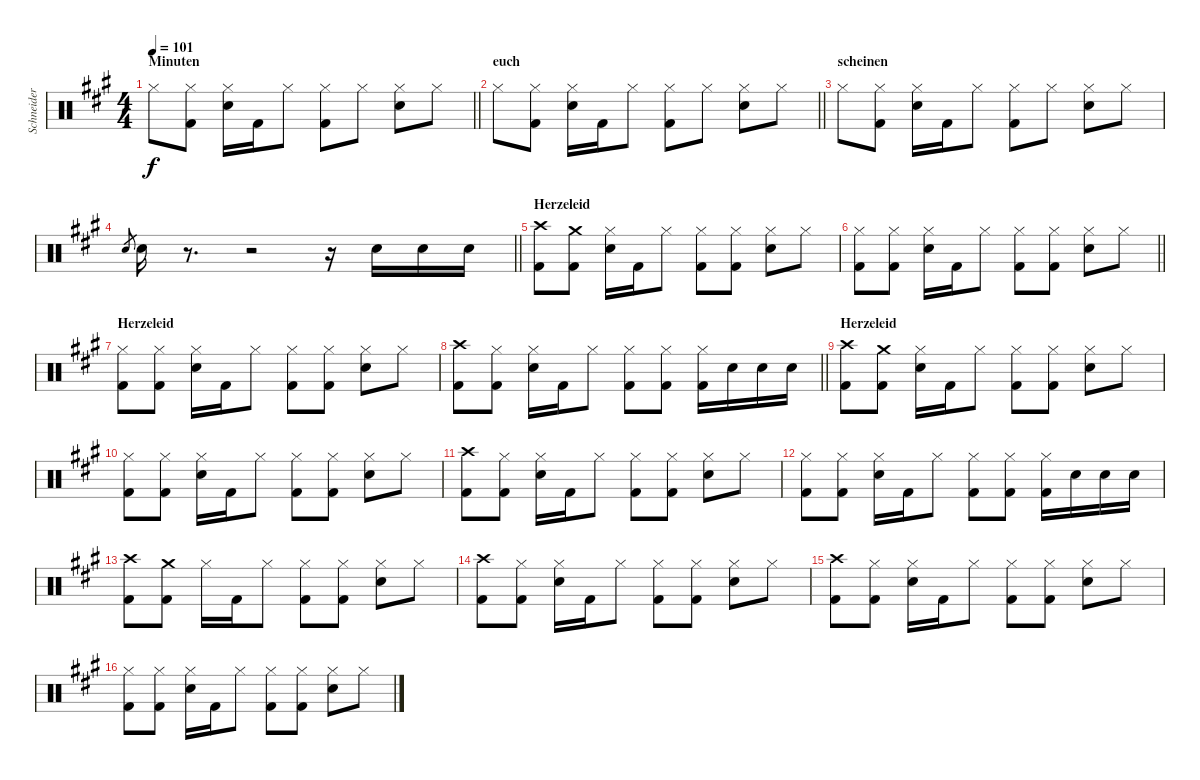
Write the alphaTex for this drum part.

\track ("Schneider" "Schneider") {instrument percussion}
\staff {score}
\articulation defaults
\ts (4 4)
\section ("" "Minuten")
\tempo 101
\clef neutral
\barLineRight lightlight
\ks f#minor "Hi-Hat (closed)".8{dy f}
("Hi-Hat (closed)" "Kick (hit) 2").8 ("Hi-Hat (closed)" "Snare (hit) 2").16 "Kick (hit) 2".16 "Hi-Hat (closed)".8 ("Hi-Hat (closed)" "Kick (hit) 2").8 "Hi-Hat (closed)".8 ("Hi-Hat (closed)" "Snare (hit) 2").8 "Hi-Hat (closed)".8 |
\section ("" "euch")
\barLineRight lightlight "Hi-Hat (closed)".8
("Hi-Hat (closed)" "Kick (hit) 2").8 ("Hi-Hat (closed)" "Snare (hit) 2").16 "Kick (hit) 2".16 "Hi-Hat (closed)".8 ("Hi-Hat (closed)" "Kick (hit) 2").8 "Hi-Hat (closed)".8 ("Hi-Hat (closed)" "Snare (hit) 2").8 "Hi-Hat (closed)".8 |
\section ("" "scheinen")
"Hi-Hat (closed)".8 ("Hi-Hat (closed)" "Kick (hit) 2").8 ("Hi-Hat (closed)" "Snare (hit) 2").16 "Kick (hit) 2".16 "Hi-Hat (closed)".8 ("Hi-Hat (closed)" "Kick (hit) 2").8 "Hi-Hat (closed)".8 ("Hi-Hat (closed)" "Snare (hit) 2").8 "Hi-Hat (closed)".8 |
\barLineRight lightlight "Snare (hit) 2".8{gr} "Snare (hit) 2".16
r.8{d} r.2 r.16 "Snare (hit) 2".16 "Snare (hit) 2".16 "Snare (hit) 2".16 |
\section ("" "Herzeleid")
("Crash high (hit)" "Kick (hit) 2").8 ("Crash medium (hit)" "Kick (hit) 2").8 ("Hi-Hat (closed)" "Snare (hit) 2").16 "Kick (hit) 2".16 "Hi-Hat (closed)".8 ("Hi-Hat (closed)" "Kick (hit) 2").8 ("Hi-Hat (closed)" "Kick (hit) 2").8 ("Hi-Hat (closed)" "Snare (hit) 2").8 "Hi-Hat (closed)".8 |
\barLineRight lightlight
("Hi-Hat (closed)" "Kick (hit) 2").8 ("Hi-Hat (closed)" "Kick (hit) 2").8 ("Hi-Hat (closed)" "Snare (hit) 2").16 "Kick (hit) 2".16 "Hi-Hat (closed)".8 ("Hi-Hat (closed)" "Kick (hit) 2").8 ("Hi-Hat (closed)" "Kick (hit) 2").8 ("Hi-Hat (closed)" "Snare (hit) 2").8 "Hi-Hat (closed)".8 |
\section ("" "Herzeleid")
("Hi-Hat (closed)" "Kick (hit) 2").8 ("Hi-Hat (closed)" "Kick (hit) 2").8 ("Hi-Hat (closed)" "Snare (hit) 2").16 "Kick (hit) 2".16 "Hi-Hat (closed)".8 ("Hi-Hat (closed)" "Kick (hit) 2").8 ("Hi-Hat (closed)" "Kick (hit) 2").8 ("Hi-Hat (closed)" "Snare (hit) 2").8 "Hi-Hat (closed)".8 |
\barLineRight lightlight
("Crash high (hit)" "Kick (hit) 2").8 ("Hi-Hat (closed)" "Kick (hit) 2").8 ("Hi-Hat (closed)" "Snare (hit) 2").16 "Kick (hit) 2".16 "Hi-Hat (closed)".8 ("Hi-Hat (closed)" "Kick (hit) 2").8 ("Hi-Hat (closed)" "Kick (hit) 2").8 ("Hi-Hat (closed)" "Kick (hit) 2").16 "Snare (hit) 2".16 "Snare (hit) 2".16 "Snare (hit) 2".16 |
\section ("" "Herzeleid")
("Crash high (hit)" "Kick (hit) 2").8 ("Crash medium (hit)" "Kick (hit) 2").8 ("Hi-Hat (closed)" "Snare (hit) 2").16 "Kick (hit) 2".16 "Hi-Hat (closed)".8 ("Hi-Hat (closed)" "Kick (hit) 2").8 ("Hi-Hat (closed)" "Kick (hit) 2").8 ("Hi-Hat (closed)" "Snare (hit) 2").8 "Hi-Hat (closed)".8 |
("Hi-Hat (closed)" "Kick (hit) 2").8 ("Hi-Hat (closed)" "Kick (hit) 2").8 ("Hi-Hat (closed)" "Snare (hit) 2").16 "Kick (hit) 2".16 "Hi-Hat (closed)".8 ("Hi-Hat (closed)" "Kick (hit) 2").8 ("Hi-Hat (closed)" "Kick (hit) 2").8 ("Hi-Hat (closed)" "Snare (hit) 2").8 "Hi-Hat (closed)".8 |
("Crash high (hit)" "Kick (hit) 2").8 ("Hi-Hat (closed)" "Kick (hit) 2").8 ("Hi-Hat (closed)" "Snare (hit) 2").16 "Kick (hit) 2".16 "Hi-Hat (closed)".8 ("Hi-Hat (closed)" "Kick (hit) 2").8 ("Hi-Hat (closed)" "Kick (hit) 2").8 ("Hi-Hat (closed)" "Snare (hit) 2").8 "Hi-Hat (closed)".8 |
("Hi-Hat (closed)" "Kick (hit) 2").8 ("Hi-Hat (closed)" "Kick (hit) 2").8 ("Hi-Hat (closed)" "Snare (hit) 2").16 "Kick (hit) 2".16 "Hi-Hat (closed)".8 ("Hi-Hat (closed)" "Kick (hit) 2").8 ("Hi-Hat (closed)" "Kick (hit) 2").8 ("Hi-Hat (closed)" "Kick (hit) 2").16 "Snare (hit) 2".16 "Snare (hit) 2".16 "Snare (hit) 2".16 |
("Crash high (hit)" "Kick (hit) 2").8 ("Crash medium (hit)" "Kick (hit) 2").8 "Hi-Hat (closed)".16 "Kick (hit) 2".16 "Hi-Hat (closed)".8 ("Hi-Hat (closed)" "Kick (hit) 2").8 ("Hi-Hat (closed)" "Kick (hit) 2").8 ("Hi-Hat (closed)" "Snare (hit) 2").8 "Hi-Hat (closed)".8 |
("Crash high (hit)" "Kick (hit) 2").8 ("Hi-Hat (closed)" "Kick (hit) 2").8 ("Hi-Hat (closed)" "Snare (hit) 2").16 "Kick (hit) 2".16 "Hi-Hat (closed)".8 ("Hi-Hat (closed)" "Kick (hit) 2").8 ("Hi-Hat (closed)" "Kick (hit) 2").8 ("Hi-Hat (closed)" "Snare (hit) 2").8 "Hi-Hat (closed)".8 |
("Crash high (hit)" "Kick (hit) 2").8 ("Hi-Hat (closed)" "Kick (hit) 2").8 ("Hi-Hat (closed)" "Snare (hit) 2").16 "Kick (hit) 2".16 "Hi-Hat (closed)".8 ("Hi-Hat (closed)" "Kick (hit) 2").8 ("Hi-Hat (closed)" "Kick (hit) 2").8 ("Hi-Hat (closed)" "Snare (hit) 2").8 "Hi-Hat (closed)".8 |
("Hi-Hat (closed)" "Kick (hit) 2").8 ("Hi-Hat (closed)" "Kick (hit) 2").8 ("Hi-Hat (closed)" "Snare (hit) 2").16 "Kick (hit) 2".16 "Hi-Hat (closed)".8 ("Hi-Hat (closed)" "Kick (hit) 2").8 ("Hi-Hat (closed)" "Kick (hit) 2").8 ("Hi-Hat (closed)" "Snare (hit) 2").8 "Hi-Hat (closed)".8
